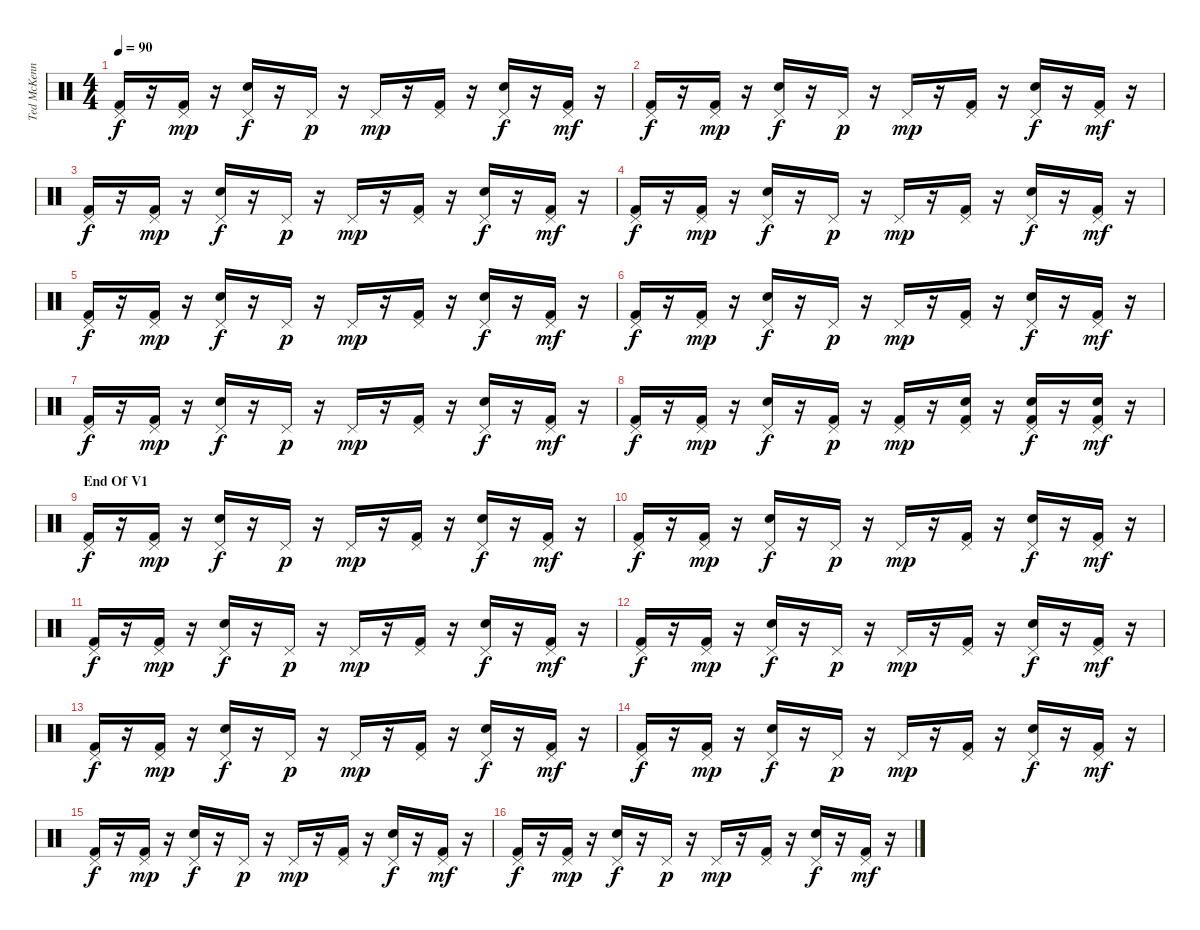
\track ("Ted McKenna" "Ted McKenn") {instrument percussion}
\staff {score}
\articulation defaults
\ts (4 4)
\tempo 90
\clef neutral
\ks c
("Pedal Hi-Hat (hit)" "Kick (hit) 2").16{dy f} r.16 ("Pedal Hi-Hat (hit)" "Kick (hit) 2").16{dy mp} r.16 ("Pedal Hi-Hat (hit)" "Snare (hit) 2").16{dy f} r.16 "Pedal Hi-Hat (hit)".16{dy p} r.16 "Pedal Hi-Hat (hit)".16{dy mp} r.16 ("Pedal Hi-Hat (hit)" "Kick (hit) 2").16 r.16 ("Pedal Hi-Hat (hit)" "Snare (hit) 2").16{dy f} r.16 ("Pedal Hi-Hat (hit)" "Kick (hit) 2").16{dy mf} r.16 |
("Pedal Hi-Hat (hit)" "Kick (hit) 2").16{dy f} r.16 ("Pedal Hi-Hat (hit)" "Kick (hit) 2").16{dy mp} r.16 ("Pedal Hi-Hat (hit)" "Snare (hit) 2").16{dy f} r.16 "Pedal Hi-Hat (hit)".16{dy p} r.16 "Pedal Hi-Hat (hit)".16{dy mp} r.16 ("Pedal Hi-Hat (hit)" "Kick (hit) 2").16 r.16 ("Pedal Hi-Hat (hit)" "Snare (hit) 2").16{dy f} r.16 ("Pedal Hi-Hat (hit)" "Kick (hit) 2").16{dy mf} r.16 |
("Pedal Hi-Hat (hit)" "Kick (hit) 2").16{dy f} r.16 ("Pedal Hi-Hat (hit)" "Kick (hit) 2").16{dy mp} r.16 ("Pedal Hi-Hat (hit)" "Snare (hit) 2").16{dy f} r.16 "Pedal Hi-Hat (hit)".16{dy p} r.16 "Pedal Hi-Hat (hit)".16{dy mp} r.16 ("Pedal Hi-Hat (hit)" "Kick (hit) 2").16 r.16 ("Pedal Hi-Hat (hit)" "Snare (hit) 2").16{dy f} r.16 ("Pedal Hi-Hat (hit)" "Kick (hit) 2").16{dy mf} r.16 |
("Pedal Hi-Hat (hit)" "Kick (hit) 2").16{dy f} r.16 ("Pedal Hi-Hat (hit)" "Kick (hit) 2").16{dy mp} r.16 ("Pedal Hi-Hat (hit)" "Snare (hit) 2").16{dy f} r.16 "Pedal Hi-Hat (hit)".16{dy p} r.16 "Pedal Hi-Hat (hit)".16{dy mp} r.16 ("Pedal Hi-Hat (hit)" "Kick (hit) 2").16 r.16 ("Pedal Hi-Hat (hit)" "Snare (hit) 2").16{dy f} r.16 ("Pedal Hi-Hat (hit)" "Kick (hit) 2").16{dy mf} r.16 |
("Pedal Hi-Hat (hit)" "Kick (hit) 2").16{dy f} r.16 ("Pedal Hi-Hat (hit)" "Kick (hit) 2").16{dy mp} r.16 ("Pedal Hi-Hat (hit)" "Snare (hit) 2").16{dy f} r.16 "Pedal Hi-Hat (hit)".16{dy p} r.16 "Pedal Hi-Hat (hit)".16{dy mp} r.16 ("Pedal Hi-Hat (hit)" "Kick (hit) 2").16 r.16 ("Pedal Hi-Hat (hit)" "Snare (hit) 2").16{dy f} r.16 ("Pedal Hi-Hat (hit)" "Kick (hit) 2").16{dy mf} r.16 |
("Pedal Hi-Hat (hit)" "Kick (hit) 2").16{dy f} r.16 ("Pedal Hi-Hat (hit)" "Kick (hit) 2").16{dy mp} r.16 ("Pedal Hi-Hat (hit)" "Snare (hit) 2").16{dy f} r.16 "Pedal Hi-Hat (hit)".16{dy p} r.16 "Pedal Hi-Hat (hit)".16{dy mp} r.16 ("Pedal Hi-Hat (hit)" "Kick (hit) 2").16 r.16 ("Pedal Hi-Hat (hit)" "Snare (hit) 2").16{dy f} r.16 ("Pedal Hi-Hat (hit)" "Kick (hit) 2").16{dy mf} r.16 |
("Pedal Hi-Hat (hit)" "Kick (hit) 2").16{dy f} r.16 ("Pedal Hi-Hat (hit)" "Kick (hit) 2").16{dy mp} r.16 ("Pedal Hi-Hat (hit)" "Snare (hit) 2").16{dy f} r.16 "Pedal Hi-Hat (hit)".16{dy p} r.16 "Pedal Hi-Hat (hit)".16{dy mp} r.16 ("Pedal Hi-Hat (hit)" "Kick (hit) 2").16 r.16 ("Pedal Hi-Hat (hit)" "Snare (hit) 2").16{dy f} r.16 ("Pedal Hi-Hat (hit)" "Kick (hit) 2").16{dy mf} r.16 |
("Pedal Hi-Hat (hit)" "Kick (hit) 2").16{dy f} r.16 ("Pedal Hi-Hat (hit)" "Kick (hit) 2").16{dy mp} r.16 ("Pedal Hi-Hat (hit)" "Snare (hit) 2").16{dy f} r.16 ("Pedal Hi-Hat (hit)" "Kick (hit) 2").16{dy p} r.16 ("Pedal Hi-Hat (hit)" "Kick (hit) 2").16{dy mp} r.16 ("Pedal Hi-Hat (hit)" "Snare (hit) 2" "Kick (hit) 2").16 r.16 ("Pedal Hi-Hat (hit)" "Snare (hit) 2" "Kick (hit) 2").16{dy f} r.16 ("Pedal Hi-Hat (hit)" "Snare (hit) 2" "Kick (hit) 2").16{dy mf} r.16 |
\section ("" "End Of V1")
("Pedal Hi-Hat (hit)" "Kick (hit) 2").16{dy f} r.16 ("Pedal Hi-Hat (hit)" "Kick (hit) 2").16{dy mp} r.16 ("Pedal Hi-Hat (hit)" "Snare (hit) 2").16{dy f} r.16 "Pedal Hi-Hat (hit)".16{dy p} r.16 "Pedal Hi-Hat (hit)".16{dy mp} r.16 ("Pedal Hi-Hat (hit)" "Kick (hit) 2").16 r.16 ("Pedal Hi-Hat (hit)" "Snare (hit) 2").16{dy f} r.16 ("Pedal Hi-Hat (hit)" "Kick (hit) 2").16{dy mf} r.16 |
("Pedal Hi-Hat (hit)" "Kick (hit) 2").16{dy f} r.16 ("Pedal Hi-Hat (hit)" "Kick (hit) 2").16{dy mp} r.16 ("Pedal Hi-Hat (hit)" "Snare (hit) 2").16{dy f} r.16 "Pedal Hi-Hat (hit)".16{dy p} r.16 "Pedal Hi-Hat (hit)".16{dy mp} r.16 ("Pedal Hi-Hat (hit)" "Kick (hit) 2").16 r.16 ("Pedal Hi-Hat (hit)" "Snare (hit) 2").16{dy f} r.16 ("Pedal Hi-Hat (hit)" "Kick (hit) 2").16{dy mf} r.16 |
("Pedal Hi-Hat (hit)" "Kick (hit) 2").16{dy f} r.16 ("Pedal Hi-Hat (hit)" "Kick (hit) 2").16{dy mp} r.16 ("Pedal Hi-Hat (hit)" "Snare (hit) 2").16{dy f} r.16 "Pedal Hi-Hat (hit)".16{dy p} r.16 "Pedal Hi-Hat (hit)".16{dy mp} r.16 ("Pedal Hi-Hat (hit)" "Kick (hit) 2").16 r.16 ("Pedal Hi-Hat (hit)" "Snare (hit) 2").16{dy f} r.16 ("Pedal Hi-Hat (hit)" "Kick (hit) 2").16{dy mf} r.16 |
("Pedal Hi-Hat (hit)" "Kick (hit) 2").16{dy f} r.16 ("Pedal Hi-Hat (hit)" "Kick (hit) 2").16{dy mp} r.16 ("Pedal Hi-Hat (hit)" "Snare (hit) 2").16{dy f} r.16 "Pedal Hi-Hat (hit)".16{dy p} r.16 "Pedal Hi-Hat (hit)".16{dy mp} r.16 ("Pedal Hi-Hat (hit)" "Kick (hit) 2").16 r.16 ("Pedal Hi-Hat (hit)" "Snare (hit) 2").16{dy f} r.16 ("Pedal Hi-Hat (hit)" "Kick (hit) 2").16{dy mf} r.16 |
("Pedal Hi-Hat (hit)" "Kick (hit) 2").16{dy f} r.16 ("Pedal Hi-Hat (hit)" "Kick (hit) 2").16{dy mp} r.16 ("Pedal Hi-Hat (hit)" "Snare (hit) 2").16{dy f} r.16 "Pedal Hi-Hat (hit)".16{dy p} r.16 "Pedal Hi-Hat (hit)".16{dy mp} r.16 ("Pedal Hi-Hat (hit)" "Kick (hit) 2").16 r.16 ("Pedal Hi-Hat (hit)" "Snare (hit) 2").16{dy f} r.16 ("Pedal Hi-Hat (hit)" "Kick (hit) 2").16{dy mf} r.16 |
("Pedal Hi-Hat (hit)" "Kick (hit) 2").16{dy f} r.16 ("Pedal Hi-Hat (hit)" "Kick (hit) 2").16{dy mp} r.16 ("Pedal Hi-Hat (hit)" "Snare (hit) 2").16{dy f} r.16 "Pedal Hi-Hat (hit)".16{dy p} r.16 "Pedal Hi-Hat (hit)".16{dy mp} r.16 ("Pedal Hi-Hat (hit)" "Kick (hit) 2").16 r.16 ("Pedal Hi-Hat (hit)" "Snare (hit) 2").16{dy f} r.16 ("Pedal Hi-Hat (hit)" "Kick (hit) 2").16{dy mf} r.16 |
("Pedal Hi-Hat (hit)" "Kick (hit) 2").16{dy f} r.16 ("Pedal Hi-Hat (hit)" "Kick (hit) 2").16{dy mp} r.16 ("Pedal Hi-Hat (hit)" "Snare (hit) 2").16{dy f} r.16 "Pedal Hi-Hat (hit)".16{dy p} r.16 "Pedal Hi-Hat (hit)".16{dy mp} r.16 ("Pedal Hi-Hat (hit)" "Kick (hit) 2").16 r.16 ("Pedal Hi-Hat (hit)" "Snare (hit) 2").16{dy f} r.16 ("Pedal Hi-Hat (hit)" "Kick (hit) 2").16{dy mf} r.16 |
("Pedal Hi-Hat (hit)" "Kick (hit) 2").16{dy f} r.16 ("Pedal Hi-Hat (hit)" "Kick (hit) 2").16{dy mp} r.16 ("Pedal Hi-Hat (hit)" "Snare (hit) 2").16{dy f} r.16 "Pedal Hi-Hat (hit)".16{dy p} r.16 "Pedal Hi-Hat (hit)".16{dy mp} r.16 ("Pedal Hi-Hat (hit)" "Kick (hit) 2").16 r.16 ("Pedal Hi-Hat (hit)" "Snare (hit) 2").16{dy f} r.16 ("Pedal Hi-Hat (hit)" "Kick (hit) 2").16{dy mf} r.16
